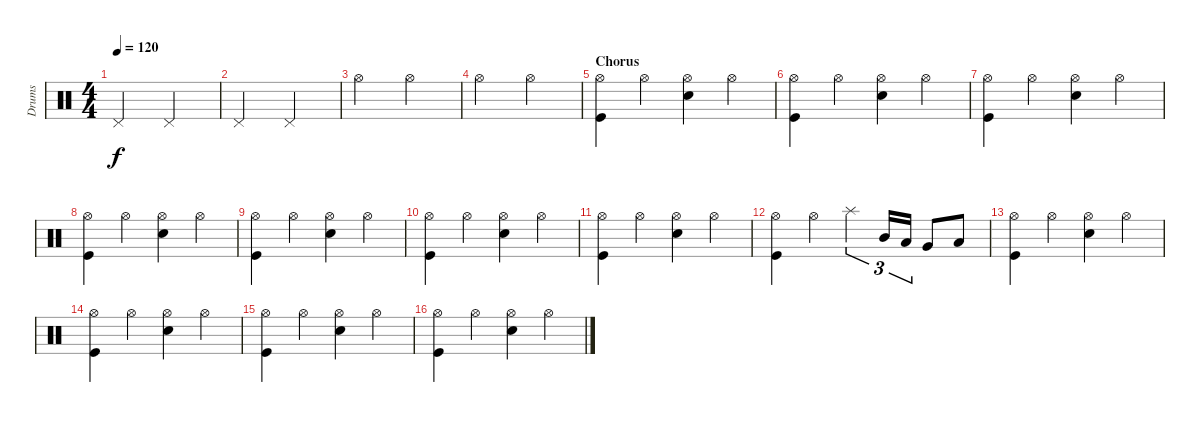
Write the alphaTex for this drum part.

\track ("Drums" "Drums") {instrument percussion}
\staff {score}
\articulation defaults
\ts (4 4)
\tempo 120
\clef neutral
\ks c "Pedal Hi-Hat (hit)".2{dy f} "Pedal Hi-Hat (hit)".2
|
"Pedal Hi-Hat (hit)".2 "Pedal Hi-Hat (hit)".2 |
"Hi-Hat (open)".2 "Hi-Hat (open)".2 |
"Hi-Hat (open)".2 "Hi-Hat (open)".2 |
\section ("" "Chorus")
("Hi-Hat (open)" "Kick (hit)").4 "Hi-Hat (open)".4 ("Hi-Hat (open)" "Snare (hit) 2").4 "Hi-Hat (open)".4 |
("Hi-Hat (open)" "Kick (hit)").4 "Hi-Hat (open)".4 ("Hi-Hat (open)" "Snare (hit) 2").4 "Hi-Hat (open)".4 |
("Hi-Hat (open)" "Kick (hit)").4 "Hi-Hat (open)".4 ("Hi-Hat (open)" "Snare (hit) 2").4 "Hi-Hat (open)".4 |
("Hi-Hat (open)" "Kick (hit)").4 "Hi-Hat (open)".4 ("Hi-Hat (open)" "Snare (hit) 2").4 "Hi-Hat (open)".4 |
("Hi-Hat (open)" "Kick (hit)").4 "Hi-Hat (open)".4 ("Hi-Hat (open)" "Snare (hit) 2").4 "Hi-Hat (open)".4 |
("Hi-Hat (open)" "Kick (hit)").4 "Hi-Hat (open)".4 ("Hi-Hat (open)" "Snare (hit) 2").4 "Hi-Hat (open)".4 |
("Hi-Hat (open)" "Kick (hit)").4 "Hi-Hat (open)".4 ("Hi-Hat (open)" "Snare (hit) 2").4 "Hi-Hat (open)".4 |
("Hi-Hat (open)" "Kick (hit)").4 "Hi-Hat (open)".4 "Splash (hit)".4{tu (3 2)} "Mid Tom (hit)".16{tu (3 2)} "Low Tom (hit)".16{tu (3 2)} "Very Low Tom (hit)".8 "Low Floor Tom (hit)".8 |
("Hi-Hat (open)" "Kick (hit)").4 "Hi-Hat (open)".4 ("Hi-Hat (open)" "Snare (hit) 2").4 "Hi-Hat (open)".4 |
("Hi-Hat (open)" "Kick (hit)").4 "Hi-Hat (open)".4 ("Hi-Hat (open)" "Snare (hit) 2").4 "Hi-Hat (open)".4 |
("Hi-Hat (open)" "Kick (hit)").4 "Hi-Hat (open)".4 ("Hi-Hat (open)" "Snare (hit) 2").4 "Hi-Hat (open)".4 |
("Hi-Hat (open)" "Kick (hit)").4 "Hi-Hat (open)".4 ("Hi-Hat (open)" "Snare (hit) 2").4 "Hi-Hat (open)".4
